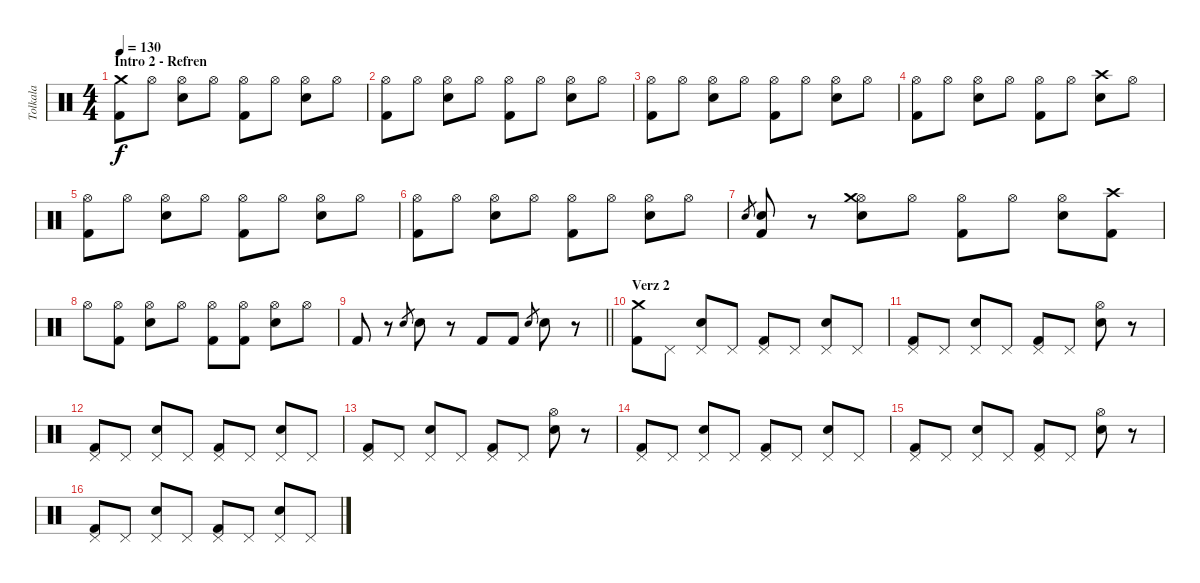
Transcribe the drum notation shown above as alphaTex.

\track ("Tolkala" "Tolkala") {instrument percussion}
\staff {score}
\articulation defaults
\ts (4 4)
\section ("" "Intro 2 - Refren")
\tempo 130
\clef neutral
\ks c
("Crash medium (hit)" "Kick (hit) 2").8{dy f} "Hi-Hat (open)".8 ("Hi-Hat (open)" "Snare (hit) 2").8 "Hi-Hat (open)".8 ("Hi-Hat (open)" "Kick (hit) 2").8 "Hi-Hat (open)".8 ("Hi-Hat (open)" "Snare (hit) 2").8 "Hi-Hat (open)".8 |
("Hi-Hat (open)" "Kick (hit) 2").8 "Hi-Hat (open)".8 ("Hi-Hat (open)" "Snare (hit) 2").8 "Hi-Hat (open)".8 ("Hi-Hat (open)" "Kick (hit) 2").8 "Hi-Hat (open)".8 ("Hi-Hat (open)" "Snare (hit) 2").8 "Hi-Hat (open)".8 |
("Hi-Hat (open)" "Kick (hit) 2").8 "Hi-Hat (open)".8 ("Hi-Hat (open)" "Snare (hit) 2").8 "Hi-Hat (open)".8 ("Hi-Hat (open)" "Kick (hit) 2").8 "Hi-Hat (open)".8 ("Hi-Hat (open)" "Snare (hit) 2").8 "Hi-Hat (open)".8 |
("Hi-Hat (open)" "Kick (hit) 2").8 "Hi-Hat (open)".8 ("Hi-Hat (open)" "Snare (hit) 2").8 "Hi-Hat (open)".8 ("Hi-Hat (open)" "Kick (hit) 2").8 "Hi-Hat (open)".8 ("Crash high (hit)" "Snare (hit) 2").8 "Hi-Hat (open)".8 |
("Hi-Hat (open)" "Kick (hit) 2").8 "Hi-Hat (open)".8 ("Hi-Hat (open)" "Snare (hit) 2").8 "Hi-Hat (open)".8 ("Hi-Hat (open)" "Kick (hit) 2").8 "Hi-Hat (open)".8 ("Hi-Hat (open)" "Snare (hit) 2").8 "Hi-Hat (open)".8 |
("Hi-Hat (open)" "Kick (hit) 2").8 "Hi-Hat (open)".8 ("Hi-Hat (open)" "Snare (hit) 2").8 "Hi-Hat (open)".8 ("Hi-Hat (open)" "Kick (hit) 2").8 "Hi-Hat (open)".8 ("Hi-Hat (open)" "Snare (hit) 2").8 "Hi-Hat (open)".8 |
"Snare (hit) 2".8{gr} ("Snare (hit) 2" "Kick (hit) 2").8 r.8 ("Hi-Hat (open)" "Crash medium (hit)" "Snare (hit) 2").8 "Hi-Hat (open)".8 ("Hi-Hat (open)" "Kick (hit) 2").8 "Hi-Hat (open)".8 ("Hi-Hat (open)" "Snare (hit) 2").8 ("Crash high (hit)" "Kick (hit) 2").8 |
"Hi-Hat (open)".8 ("Hi-Hat (open)" "Kick (hit) 2").8 ("Hi-Hat (open)" "Snare (hit) 2").8 "Hi-Hat (open)".8 ("Hi-Hat (open)" "Kick (hit) 2").8 ("Hi-Hat (open)" "Kick (hit) 2").8 ("Hi-Hat (open)" "Snare (hit) 2").8 "Hi-Hat (open)".8 |
\barLineRight lightlight "Kick (hit) 2".8
r.8 "Snare (hit) 2".8{gr} "Snare (hit) 2".8 r.8 "Kick (hit) 2".8 "Kick (hit) 2".8 "Snare (hit) 2".8{gr} "Snare (hit) 2".8 r.8 |
\section ("" "Verz 2")
("Crash medium (hit)" "Kick (hit) 2").8 "Pedal Hi-Hat (hit)".8 ("Pedal Hi-Hat (hit)" "Snare (hit) 2").8 "Pedal Hi-Hat (hit)".8 ("Pedal Hi-Hat (hit)" "Kick (hit) 2").8 "Pedal Hi-Hat (hit)".8 ("Pedal Hi-Hat (hit)" "Snare (hit) 2").8 "Pedal Hi-Hat (hit)".8 |
("Pedal Hi-Hat (hit)" "Kick (hit) 2").8 "Pedal Hi-Hat (hit)".8 ("Pedal Hi-Hat (hit)" "Snare (hit) 2").8 "Pedal Hi-Hat (hit)".8 ("Pedal Hi-Hat (hit)" "Kick (hit) 2").8 "Pedal Hi-Hat (hit)".8 ("Hi-Hat (open)" "Snare (hit) 2").8 r.8 |
("Pedal Hi-Hat (hit)" "Kick (hit) 2").8 "Pedal Hi-Hat (hit)".8 ("Pedal Hi-Hat (hit)" "Snare (hit) 2").8 "Pedal Hi-Hat (hit)".8 ("Pedal Hi-Hat (hit)" "Kick (hit) 2").8 "Pedal Hi-Hat (hit)".8 ("Pedal Hi-Hat (hit)" "Snare (hit) 2").8 "Pedal Hi-Hat (hit)".8 |
("Pedal Hi-Hat (hit)" "Kick (hit) 2").8 "Pedal Hi-Hat (hit)".8 ("Pedal Hi-Hat (hit)" "Snare (hit) 2").8 "Pedal Hi-Hat (hit)".8 ("Pedal Hi-Hat (hit)" "Kick (hit) 2").8 "Pedal Hi-Hat (hit)".8 ("Hi-Hat (open)" "Snare (hit) 2").8 r.8 |
("Pedal Hi-Hat (hit)" "Kick (hit) 2").8 "Pedal Hi-Hat (hit)".8 ("Pedal Hi-Hat (hit)" "Snare (hit) 2").8 "Pedal Hi-Hat (hit)".8 ("Pedal Hi-Hat (hit)" "Kick (hit) 2").8 "Pedal Hi-Hat (hit)".8 ("Pedal Hi-Hat (hit)" "Snare (hit) 2").8 "Pedal Hi-Hat (hit)".8 |
("Pedal Hi-Hat (hit)" "Kick (hit) 2").8 "Pedal Hi-Hat (hit)".8 ("Pedal Hi-Hat (hit)" "Snare (hit) 2").8 "Pedal Hi-Hat (hit)".8 ("Pedal Hi-Hat (hit)" "Kick (hit) 2").8 "Pedal Hi-Hat (hit)".8 ("Hi-Hat (open)" "Snare (hit) 2").8 r.8 |
("Pedal Hi-Hat (hit)" "Kick (hit) 2").8 "Pedal Hi-Hat (hit)".8 ("Pedal Hi-Hat (hit)" "Snare (hit) 2").8 "Pedal Hi-Hat (hit)".8 ("Pedal Hi-Hat (hit)" "Kick (hit) 2").8 "Pedal Hi-Hat (hit)".8 ("Pedal Hi-Hat (hit)" "Snare (hit) 2").8 "Pedal Hi-Hat (hit)".8
